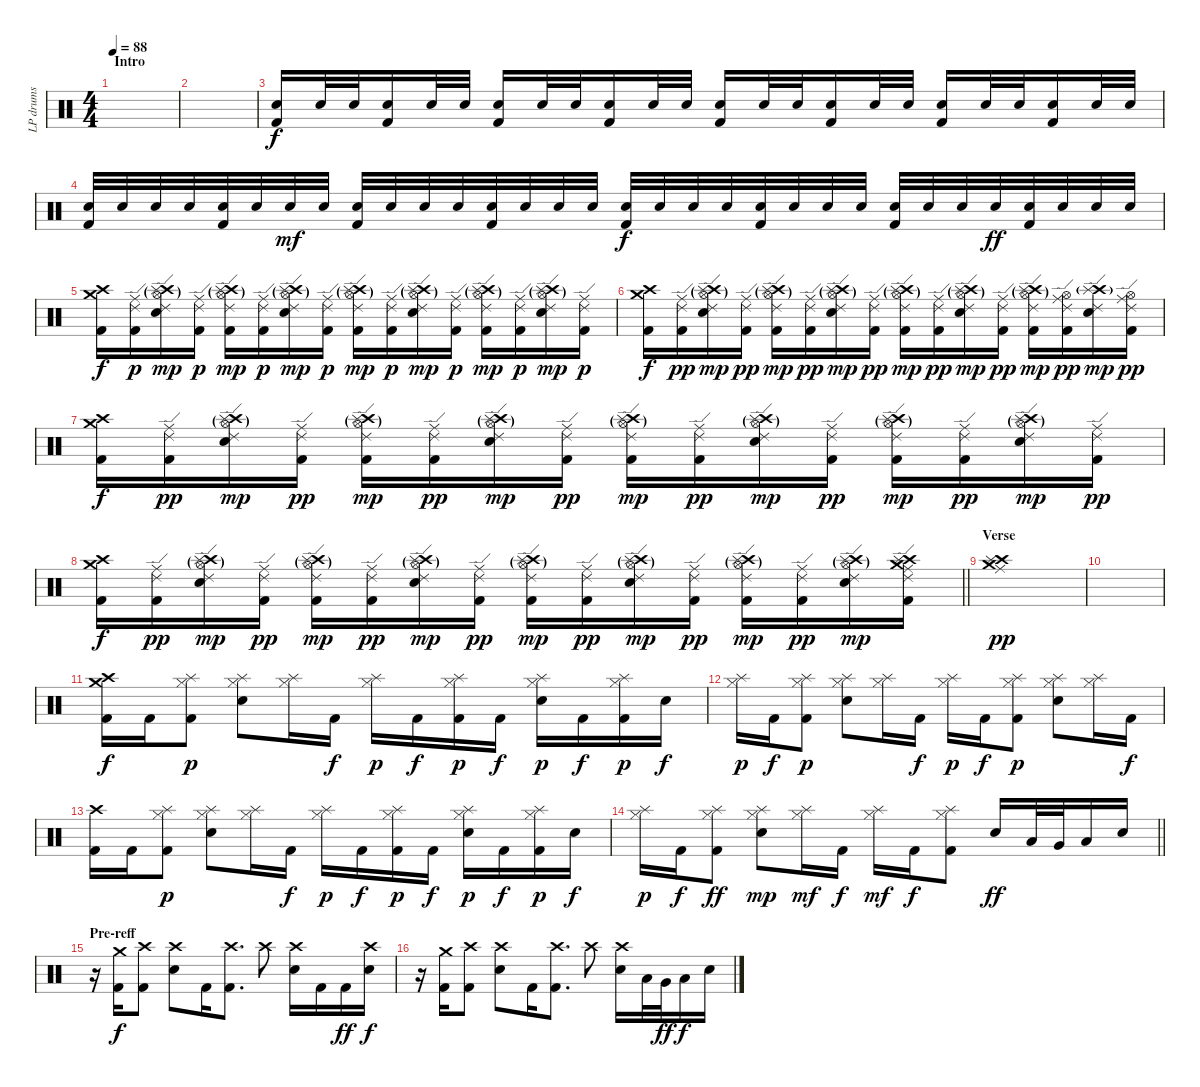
\track ("LP drums" "LP drums") {instrument percussion}
\staff {score}
\articulation defaults
\ts (4 4)
\section ("" "Intro")
\tempo 88
\clef neutral
\ks c
|
|
("Electric Snare (hit)" "Kick (hit) 2").16 "Electric Snare (hit)".32 "Electric Snare (hit)".32 ("Electric Snare (hit)" "Kick (hit) 2").16 "Electric Snare (hit)".32 "Electric Snare (hit)".32 ("Electric Snare (hit)" "Kick (hit) 2").16 "Electric Snare (hit)".32 "Electric Snare (hit)".32 ("Electric Snare (hit)" "Kick (hit) 2").16 "Electric Snare (hit)".32 "Electric Snare (hit)".32 ("Electric Snare (hit)" "Kick (hit) 2").16 "Electric Snare (hit)".32 "Electric Snare (hit)".32 ("Electric Snare (hit)" "Kick (hit) 2").16 "Electric Snare (hit)".32 "Electric Snare (hit)".32 ("Electric Snare (hit)" "Kick (hit) 2").16 "Electric Snare (hit)".32 "Electric Snare (hit)".32 ("Electric Snare (hit)" "Kick (hit) 2").16 "Electric Snare (hit)".32 "Electric Snare (hit)".32 |
("Electric Snare (hit)" "Kick (hit) 2").32 "Electric Snare (hit)".32 "Electric Snare (hit)".32 "Electric Snare (hit)".32 ("Electric Snare (hit)" "Kick (hit) 2").32 "Electric Snare (hit)".32 "Electric Snare (hit)".32{dy mf} "Electric Snare (hit)".32 ("Electric Snare (hit)" "Kick (hit) 2").32 "Electric Snare (hit)".32 "Electric Snare (hit)".32 "Electric Snare (hit)".32 ("Electric Snare (hit)" "Kick (hit) 2").32 "Electric Snare (hit)".32 "Electric Snare (hit)".32 "Electric Snare (hit)".32 ("Electric Snare (hit)" "Kick (hit) 2").32{dy f} "Electric Snare (hit)".32 "Electric Snare (hit)".32 "Electric Snare (hit)".32 ("Electric Snare (hit)" "Kick (hit) 2").32 "Electric Snare (hit)".32 "Electric Snare (hit)".32 "Electric Snare (hit)".32 ("Electric Snare (hit)" "Kick (hit) 2").32 "Electric Snare (hit)".32 "Electric Snare (hit)".32 "Electric Snare (hit)".32{dy ff} ("Electric Snare (hit)" "Kick (hit) 2").32 "Electric Snare (hit)".32 "Electric Snare (hit)".32 "Electric Snare (hit)".32 |
("Crash high (hit)" "Crash medium (hit)" "Kick (hit) 2").16{dy f} ("Ride (edge) 2" "Ride (middle)" "Kick (hit) 2").16{dy p} ("Hi-Hat (open)"{g} "Ride (edge) 2" "Crash high (hit)" "Splash (hit)"{g} "Electric Snare (hit)").16{dy mp} ("Ride (edge) 2" "Ride (middle)" "Kick (hit) 2").16{dy p} ("Hi-Hat (open)"{g} "Ride (edge) 2" "Crash high (hit)" "Splash (hit)"{g} "Kick (hit) 2").16{dy mp} ("Ride (edge) 2" "Ride (middle)" "Kick (hit) 2").16{dy p} ("Hi-Hat (open)"{g} "Ride (edge) 2" "Crash high (hit)" "Splash (hit)"{g} "Electric Snare (hit)").16{dy mp} ("Ride (edge) 2" "Ride (middle)" "Kick (hit) 2").16{dy p} ("Hi-Hat (open)"{g} "Ride (edge) 2" "Crash high (hit)" "Splash (hit)"{g} "Kick (hit) 2").16{dy mp} ("Ride (edge) 2" "Ride (middle)" "Kick (hit) 2").16{dy p} ("Hi-Hat (open)"{g} "Ride (edge) 2" "Crash high (hit)" "Splash (hit)"{g} "Electric Snare (hit)").16{dy mp} ("Ride (edge) 2" "Ride (middle)" "Kick (hit) 2").16{dy p} ("Hi-Hat (open)"{g} "Ride (edge) 2" "Crash high (hit)" "Splash (hit)"{g} "Kick (hit) 2").16{dy mp} ("Ride (edge) 2" "Ride (middle)" "Kick (hit) 2").16{dy p} ("Hi-Hat (open)"{g} "Ride (edge) 2" "Crash high (hit)" "Splash (hit)"{g} "Electric Snare (hit)").16{dy mp} ("Ride (edge) 2" "Ride (middle)" "Kick (hit) 2").16{dy p} |
("Crash high (hit)" "Crash medium (hit)" "Kick (hit) 2").16{dy f} ("Ride (edge) 2" "Ride (middle)" "Kick (hit) 2").16{dy pp} ("Hi-Hat (open)"{g} "Ride (edge) 2" "Crash high (hit)" "Splash (hit)"{g} "Electric Snare (hit)").16{dy mp} ("Ride (edge) 2" "Ride (middle)" "Kick (hit) 2").16{dy pp} ("Hi-Hat (open)"{g} "Ride (edge) 2" "Crash high (hit)" "Splash (hit)"{g} "Kick (hit) 2").16{dy mp} ("Ride (edge) 2" "Ride (middle)" "Kick (hit) 2").16{dy pp} ("Hi-Hat (open)"{g} "Ride (edge) 2" "Crash high (hit)" "Splash (hit)"{g} "Electric Snare (hit)").16{dy mp} ("Ride (edge) 2" "Ride (middle)" "Kick (hit) 2").16{dy pp} ("Hi-Hat (open)"{g} "Ride (edge) 2" "Crash high (hit)" "Splash (hit)"{g} "Kick (hit) 2").16{dy mp} ("Ride (edge) 2" "Ride (middle)" "Kick (hit) 2").16{dy pp} ("Hi-Hat (open)"{g} "Ride (edge) 2" "Crash high (hit)" "Splash (hit)"{g} "Electric Snare (hit)").16{dy mp} ("Ride (edge) 2" "Ride (middle)" "Kick (hit) 2").16{dy pp} ("Hi-Hat (open)"{g} "Ride (edge) 2" "Crash high (hit)" "Splash (hit)"{g} "Kick (hit) 2").16{dy mp} ("Ride (edge) 2" "Ride (middle)" "Hi-Hat (open)" "Kick (hit) 2").16{dy pp} ("Ride (edge) 2" "Crash high (hit)" "Splash (hit)"{g} "Electric Snare (hit)").16{dy mp} ("Ride (edge) 2" "Ride (middle)" "Hi-Hat (open)" "Kick (hit) 2").16{dy pp} |
("Crash high (hit)" "Crash medium (hit)" "Kick (hit) 2").16{dy f} ("Ride (edge) 2" "Ride (middle)" "Kick (hit) 2").16{dy pp} ("Hi-Hat (open)"{g} "Ride (edge) 2" "Crash high (hit)" "Splash (hit)"{g} "Electric Snare (hit)").16{dy mp} ("Ride (edge) 2" "Ride (middle)" "Kick (hit) 2").16{dy pp} ("Hi-Hat (open)"{g} "Ride (edge) 2" "Crash high (hit)" "Splash (hit)"{g} "Kick (hit) 2").16{dy mp} ("Ride (edge) 2" "Ride (middle)" "Kick (hit) 2").16{dy pp} ("Hi-Hat (open)"{g} "Ride (edge) 2" "Crash high (hit)" "Splash (hit)"{g} "Electric Snare (hit)").16{dy mp} ("Ride (edge) 2" "Ride (middle)" "Kick (hit) 2").16{dy pp} ("Hi-Hat (open)"{g} "Ride (edge) 2" "Crash high (hit)" "Splash (hit)"{g} "Kick (hit) 2").16{dy mp} ("Ride (edge) 2" "Ride (middle)" "Kick (hit) 2").16{dy pp} ("Hi-Hat (open)"{g} "Ride (edge) 2" "Crash high (hit)" "Splash (hit)"{g} "Electric Snare (hit)").16{dy mp} ("Ride (edge) 2" "Ride (middle)" "Kick (hit) 2").16{dy pp} ("Hi-Hat (open)"{g} "Ride (edge) 2" "Crash high (hit)" "Splash (hit)"{g} "Kick (hit) 2").16{dy mp} ("Ride (edge) 2" "Ride (middle)" "Kick (hit) 2").16{dy pp} ("Hi-Hat (open)"{g} "Ride (edge) 2" "Crash high (hit)" "Splash (hit)"{g} "Electric Snare (hit)").16{dy mp} ("Ride (edge) 2" "Ride (middle)" "Kick (hit) 2").16{dy pp} |
\barLineRight lightlight
("Crash high (hit)" "Crash medium (hit)" "Kick (hit) 2").16{dy f} ("Ride (edge) 2" "Ride (middle)" "Kick (hit) 2").16{dy pp} ("Hi-Hat (open)"{g} "Ride (edge) 2" "Crash high (hit)" "Splash (hit)"{g} "Electric Snare (hit)").16{dy mp} ("Ride (edge) 2" "Ride (middle)" "Kick (hit) 2").16{dy pp} ("Hi-Hat (open)"{g} "Ride (edge) 2" "Crash high (hit)" "Splash (hit)"{g} "Kick (hit) 2").16{dy mp} ("Ride (edge) 2" "Ride (middle)" "Kick (hit) 2").16{dy pp} ("Hi-Hat (open)"{g} "Ride (edge) 2" "Crash high (hit)" "Splash (hit)"{g} "Electric Snare (hit)").16{dy mp} ("Ride (edge) 2" "Ride (middle)" "Kick (hit) 2").16{dy pp} ("Hi-Hat (open)"{g} "Ride (edge) 2" "Crash high (hit)" "Splash (hit)"{g} "Kick (hit) 2").16{dy mp} ("Ride (edge) 2" "Ride (middle)" "Kick (hit) 2").16{dy pp} ("Hi-Hat (open)"{g} "Ride (edge) 2" "Crash high (hit)" "Splash (hit)"{g} "Electric Snare (hit)").16{dy mp} ("Ride (edge) 2" "Ride (middle)" "Kick (hit) 2").16{dy pp} ("Hi-Hat (open)"{g} "Ride (edge) 2" "Crash high (hit)" "Splash (hit)"{g} "Kick (hit) 2").16{dy mp} ("Ride (edge) 2" "Ride (middle)" "Kick (hit) 2").16{dy pp} ("Hi-Hat (open)"{g} "Ride (edge) 2" "Crash high (hit)" "Splash (hit)"{g} "Electric Snare (hit)").16{dy mp} ("Crash high (hit)" "Crash medium (hit)" "Ride (middle)" "Ride (edge) 2" "Splash (hit)" "Kick (hit) 2").16 |
\section ("" "Verse")
("Crash high (hit)" "Ride (middle)" "Crash medium (hit)" "Splash (hit)").1{dy pp} |
|
("Crash medium (hit)" "Crash high (hit)" "Kick (hit) 2").16{dy f} "Kick (hit) 2".16 ("Splash (hit)" "Hi-Hat (closed)" "Kick (hit) 2").8{dy p} ("Splash (hit)" "Hi-Hat (closed)" "Electric Snare (hit)").8 ("Splash (hit)" "Hi-Hat (closed)").16 "Kick (hit) 2".16{dy f} ("Splash (hit)" "Hi-Hat (closed)").16{dy p} "Kick (hit) 2".16{dy f} ("Splash (hit)" "Hi-Hat (closed)" "Kick (hit) 2").16{dy p} "Kick (hit) 2".16{dy f} ("Splash (hit)" "Hi-Hat (closed)" "Electric Snare (hit)").16{dy p} "Kick (hit) 2".16{dy f} ("Splash (hit)" "Hi-Hat (closed)" "Kick (hit) 2").16{dy p} "Electric Snare (hit)".16{dy f} |
("Splash (hit)" "Hi-Hat (closed)").16{dy p} "Kick (hit) 2".16{dy f} ("Splash (hit)" "Hi-Hat (closed)" "Kick (hit) 2").8{dy p} ("Splash (hit)" "Hi-Hat (closed)" "Electric Snare (hit)").8 ("Splash (hit)" "Hi-Hat (closed)").16 "Kick (hit) 2".16{dy f} ("Splash (hit)" "Hi-Hat (closed)").16{dy p} "Kick (hit) 2".16{dy f} ("Splash (hit)" "Hi-Hat (closed)" "Kick (hit) 2").8{dy p} ("Splash (hit)" "Hi-Hat (closed)" "Electric Snare (hit)").8 ("Splash (hit)" "Hi-Hat (closed)").16 "Kick (hit) 2".16{dy f} |
("Crash high (hit)" "Kick (hit) 2").16 "Kick (hit) 2".16 ("Splash (hit)" "Hi-Hat (closed)" "Kick (hit) 2").8{dy p} ("Splash (hit)" "Hi-Hat (closed)" "Electric Snare (hit)").8 ("Splash (hit)" "Hi-Hat (closed)").16 "Kick (hit) 2".16{dy f} ("Splash (hit)" "Hi-Hat (closed)").16{dy p} "Kick (hit) 2".16{dy f} ("Splash (hit)" "Hi-Hat (closed)" "Kick (hit) 2").16{dy p} "Kick (hit) 2".16{dy f} ("Splash (hit)" "Hi-Hat (closed)" "Electric Snare (hit)").16{dy p} "Kick (hit) 2".16{dy f} ("Splash (hit)" "Hi-Hat (closed)" "Kick (hit) 2").16{dy p} "Electric Snare (hit)".16{dy f} |
\barLineRight lightlight
("Splash (hit)" "Hi-Hat (closed)").16{dy p} "Kick (hit) 2".16{dy f} ("Splash (hit)" "Hi-Hat (closed)" "Kick (hit) 2").8{dy ff} ("Splash (hit)" "Hi-Hat (closed)" "Electric Snare (hit)").8{dy mp} ("Splash (hit)" "Hi-Hat (closed)").16{dy mf} "Kick (hit) 2".16{dy f} ("Splash (hit)" "Hi-Hat (closed)").16{dy mf} "Kick (hit) 2".16{dy f} ("Splash (hit)" "Hi-Hat (closed)" "Kick (hit) 2").8 "Electric Snare (hit)".16{dy ff} "Low Tom (hit)".32 "Very Low Tom (hit)".32 "Low Floor Tom (hit)".16 "Electric Snare (hit)".16 |
\section ("" "Pre-reff")
r.16 ("Crash medium (hit)" "Kick (hit) 2").16{dy f} ("Crash high (hit)" "Kick (hit) 2").8 ("Crash high (hit)" "Electric Snare (hit)").8 "Kick (hit) 2".16 ("Crash high (hit)" "Kick (hit) 2").8{d} "Crash high (hit)".8 ("Crash high (hit)" "Electric Snare (hit)").16 "Kick (hit) 2".16 "Kick (hit) 2".16{dy ff} ("Crash high (hit)" "Electric Snare (hit)").16{dy f} |
r.16 ("Crash medium (hit)" "Kick (hit) 2").16 ("Crash high (hit)" "Kick (hit) 2").8 ("Crash high (hit)" "Electric Snare (hit)").8 "Kick (hit) 2".16 ("Crash high (hit)" "Kick (hit) 2").8{d} "Crash high (hit)".8 ("Crash high (hit)" "Electric Snare (hit)").16 "Low Tom (hit)".32 "Very Low Tom (hit)".32{dy ff} "Low Floor Tom (hit)".16{dy f} "Electric Snare (hit)".16
